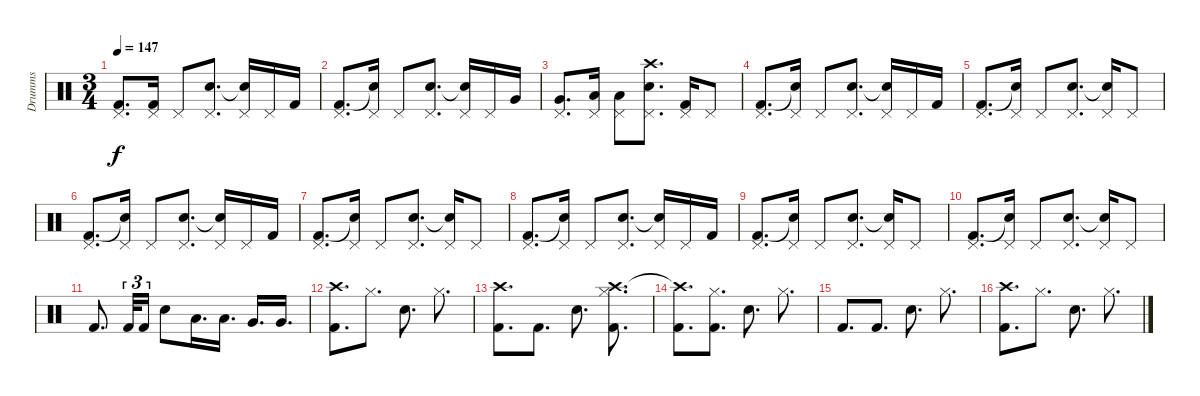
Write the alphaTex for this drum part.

\track ("Drumms" "Drumms") {instrument percussion}
\staff {score}
\articulation defaults
\ts (3 4)
\tempo 147
\clef neutral
\ks c
("Kick (hit) 2" "Pedal Hi-Hat (hit)").8{d dy f} ("Kick (hit) 2" "Pedal Hi-Hat (hit)").16 "Pedal Hi-Hat (hit)".8 ("Electric Snare (hit)" "Pedal Hi-Hat (hit)").8{d} ("Snare (hit)"{t} "Pedal Hi-Hat (hit)").16 "Pedal Hi-Hat (hit)".16 "Kick (hit) 2".16 |
("Kick (hit) 2" "Pedal Hi-Hat (hit)").8{d} ("Snare (hit)"{t} "Pedal Hi-Hat (hit)").16 "Pedal Hi-Hat (hit)".8 ("Electric Snare (hit)" "Pedal Hi-Hat (hit)").8{d} ("Snare (hit)"{t} "Pedal Hi-Hat (hit)").16 "Pedal Hi-Hat (hit)".16 "Very Low Tom (hit)".16 |
("Very Low Tom (hit)" "Pedal Hi-Hat (hit)").8{d} ("Low Tom (hit)" "Pedal Hi-Hat (hit)").16 ("Low Tom (hit)" "Pedal Hi-Hat (hit)").8 ("Crash high (hit)" "Electric Snare (hit)" "Pedal Hi-Hat (hit)").8{d} ("Kick (hit) 2" "Pedal Hi-Hat (hit)").16 "Pedal Hi-Hat (hit)".8 |
("Kick (hit) 2" "Pedal Hi-Hat (hit)").8{d} ("Snare (hit)"{t} "Pedal Hi-Hat (hit)").16 "Pedal Hi-Hat (hit)".8 ("Electric Snare (hit)" "Pedal Hi-Hat (hit)").8{d} ("Snare (hit)"{t} "Pedal Hi-Hat (hit)").16 "Pedal Hi-Hat (hit)".16 "Kick (hit) 2".16 |
("Kick (hit) 2" "Pedal Hi-Hat (hit)").8{d} ("Snare (hit)"{t} "Pedal Hi-Hat (hit)").16 "Pedal Hi-Hat (hit)".8 ("Electric Snare (hit)" "Pedal Hi-Hat (hit)").8{d} ("Snare (hit)"{t} "Pedal Hi-Hat (hit)").16 "Pedal Hi-Hat (hit)".8 |
("Kick (hit) 2" "Pedal Hi-Hat (hit)").8{d} ("Snare (hit)"{t} "Pedal Hi-Hat (hit)").16 "Pedal Hi-Hat (hit)".8 ("Electric Snare (hit)" "Pedal Hi-Hat (hit)").8{d} ("Snare (hit)"{t} "Pedal Hi-Hat (hit)").16 "Pedal Hi-Hat (hit)".16 "Kick (hit) 2".16 |
("Kick (hit) 2" "Pedal Hi-Hat (hit)").8{d} ("Snare (hit)"{t} "Pedal Hi-Hat (hit)").16 "Pedal Hi-Hat (hit)".8 ("Electric Snare (hit)" "Pedal Hi-Hat (hit)").8{d} ("Snare (hit)"{t} "Pedal Hi-Hat (hit)").16 "Pedal Hi-Hat (hit)".8 |
("Kick (hit) 2" "Pedal Hi-Hat (hit)").8{d} ("Snare (hit)"{t} "Pedal Hi-Hat (hit)").16 "Pedal Hi-Hat (hit)".8 ("Electric Snare (hit)" "Pedal Hi-Hat (hit)").8{d} ("Snare (hit)"{t} "Pedal Hi-Hat (hit)").16 "Pedal Hi-Hat (hit)".16 "Kick (hit) 2".16 |
("Kick (hit) 2" "Pedal Hi-Hat (hit)").8{d} ("Snare (hit)"{t} "Pedal Hi-Hat (hit)").16 "Pedal Hi-Hat (hit)".8 ("Electric Snare (hit)" "Pedal Hi-Hat (hit)").8{d} ("Snare (hit)"{t} "Pedal Hi-Hat (hit)").16 "Pedal Hi-Hat (hit)".8 |
("Kick (hit) 2" "Pedal Hi-Hat (hit)").8{d} ("Snare (hit)"{t} "Pedal Hi-Hat (hit)").16 "Pedal Hi-Hat (hit)".8 ("Electric Snare (hit)" "Pedal Hi-Hat (hit)").8{d} ("Snare (hit)"{t} "Pedal Hi-Hat (hit)").16 "Pedal Hi-Hat (hit)".8 |
\section ("" "")
"Kick (hit) 2".8{d} "Kick (hit) 2".32{tu (3 2)} "Kick (hit) 2".16{tu (3 2)} "Electric Snare (hit)".8 "Low Tom (hit)".16{d} "Low Tom (hit)".16{d} "Very Low Tom (hit)".16{d} "Very Low Tom (hit)".16{d} |
("Crash high (hit)" "Kick (hit) 2").8{d} "Hi-Hat (closed)".8{d} "Electric Snare (hit)".8{d} "Hi-Hat (closed)".8{d} |
("Crash high (hit)" "Kick (hit) 2").8{d} "Kick (hit) 2".8{d} "Electric Snare (hit)".8{d} ("Crash high (hit)" "Kick (hit) 2" "Hi-Hat (closed)").8{d} |
("Crash high (hit)"{t} "Kick (hit) 2").8{d} ("Kick (hit) 2" "Hi-Hat (closed)").8{d} "Electric Snare (hit)".8{d} "Hi-Hat (closed)".8{d} |
"Kick (hit) 2".8{d} "Kick (hit) 2".8{d} "Electric Snare (hit)".8{d} "Hi-Hat (closed)".8{d} |
("Crash high (hit)" "Kick (hit) 2").8{d} "Hi-Hat (closed)".8{d} "Electric Snare (hit)".8{d} "Hi-Hat (closed)".8{d}
